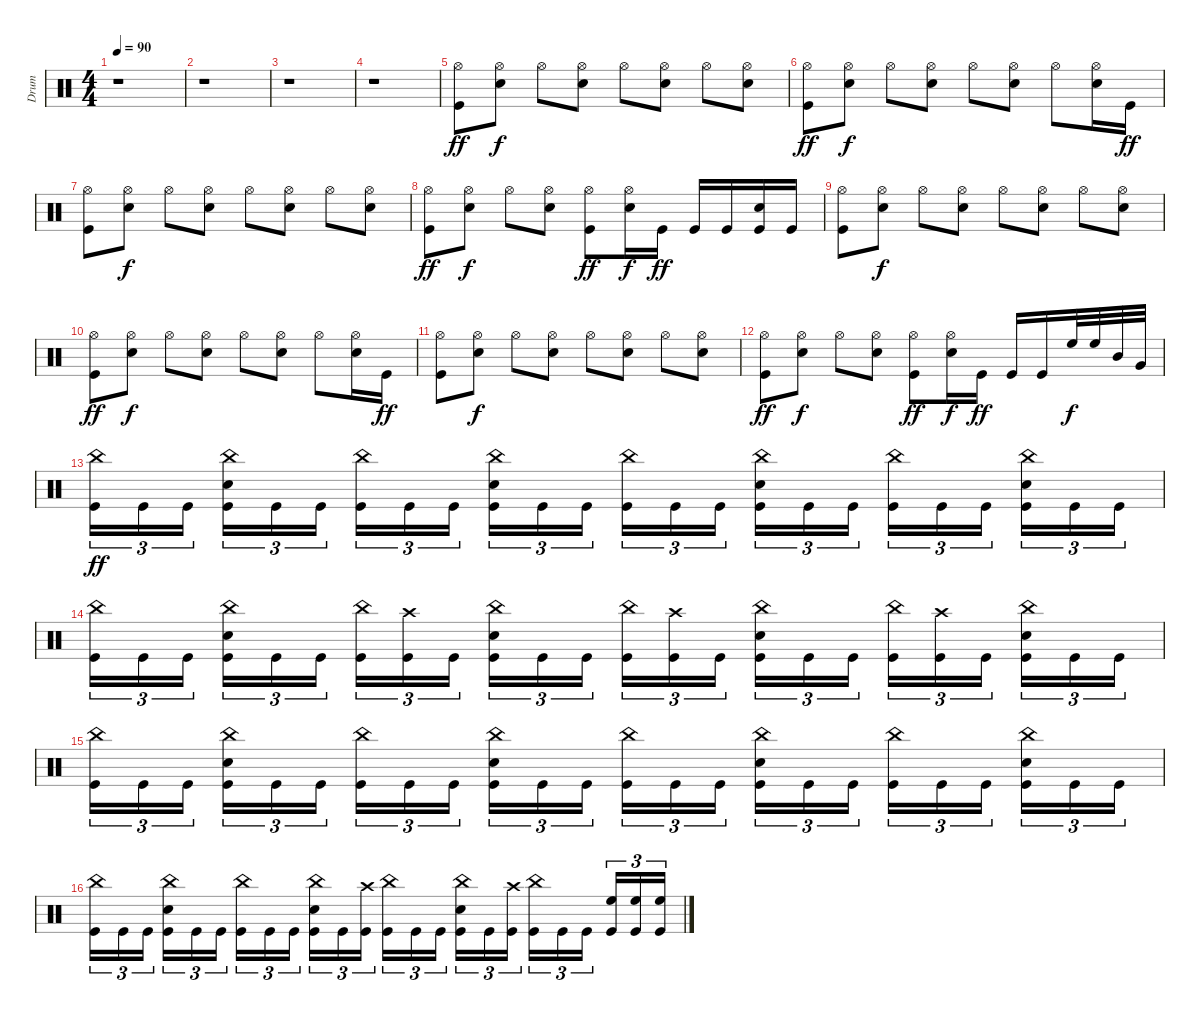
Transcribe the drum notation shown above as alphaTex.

\track ("Drum" "Drum") {instrument percussion}
\staff {score}
\articulation defaults
\ts (4 4)
\tempo 90
\clef neutral
\ks c
r.1{dy f} |
r.1 |
r.1 |
r.1 |
("Hi-Hat (open)" "Kick (hit)").8{dy ff} ("Hi-Hat (open)" "Snare (hit) 2").8{dy f} "Hi-Hat (open)".8 ("Hi-Hat (open)" "Snare (hit) 2").8 "Hi-Hat (open)".8 ("Hi-Hat (open)" "Snare (hit) 2").8 "Hi-Hat (open)".8 ("Hi-Hat (open)" "Snare (hit) 2").8 |
("Hi-Hat (open)" "Kick (hit)").8{dy ff} ("Hi-Hat (open)" "Snare (hit) 2").8{dy f} "Hi-Hat (open)".8 ("Hi-Hat (open)" "Snare (hit) 2").8 "Hi-Hat (open)".8 ("Hi-Hat (open)" "Snare (hit) 2").8 "Hi-Hat (open)".8 ("Hi-Hat (open)" "Snare (hit) 2").16 "Kick (hit)".16{dy ff} |
("Hi-Hat (open)" "Kick (hit)").8 ("Hi-Hat (open)" "Snare (hit) 2").8{dy f} "Hi-Hat (open)".8 ("Hi-Hat (open)" "Snare (hit) 2").8 "Hi-Hat (open)".8 ("Hi-Hat (open)" "Snare (hit) 2").8 "Hi-Hat (open)".8 ("Hi-Hat (open)" "Snare (hit) 2").8 |
("Hi-Hat (open)" "Kick (hit)").8{dy ff} ("Hi-Hat (open)" "Snare (hit) 2").8{dy f} "Hi-Hat (open)".8 ("Hi-Hat (open)" "Snare (hit) 2").8 ("Hi-Hat (open)" "Kick (hit)").8{dy ff} ("Hi-Hat (open)" "Snare (hit) 2").16{dy f} "Kick (hit)".16{dy ff} "Kick (hit)".16 "Kick (hit)".16 ("Snare (hit) 2" "Kick (hit)").16 "Kick (hit)".16 |
("Hi-Hat (open)" "Kick (hit)").8 ("Hi-Hat (open)" "Snare (hit) 2").8{dy f} "Hi-Hat (open)".8 ("Hi-Hat (open)" "Snare (hit) 2").8 "Hi-Hat (open)".8 ("Hi-Hat (open)" "Snare (hit) 2").8 "Hi-Hat (open)".8 ("Hi-Hat (open)" "Snare (hit) 2").8 |
("Hi-Hat (open)" "Kick (hit)").8{dy ff} ("Hi-Hat (open)" "Snare (hit) 2").8{dy f} "Hi-Hat (open)".8 ("Hi-Hat (open)" "Snare (hit) 2").8 "Hi-Hat (open)".8 ("Hi-Hat (open)" "Snare (hit) 2").8 "Hi-Hat (open)".8 ("Hi-Hat (open)" "Snare (hit) 2").16 "Kick (hit)".16{dy ff} |
("Hi-Hat (open)" "Kick (hit)").8 ("Hi-Hat (open)" "Snare (hit) 2").8{dy f} "Hi-Hat (open)".8 ("Hi-Hat (open)" "Snare (hit) 2").8 "Hi-Hat (open)".8 ("Hi-Hat (open)" "Snare (hit) 2").8 "Hi-Hat (open)".8 ("Hi-Hat (open)" "Snare (hit) 2").8 |
("Hi-Hat (open)" "Kick (hit)").8{dy ff} ("Hi-Hat (open)" "Snare (hit) 2").8{dy f} "Hi-Hat (open)".8 ("Hi-Hat (open)" "Snare (hit) 2").8 ("Hi-Hat (open)" "Kick (hit)").8{dy ff} ("Hi-Hat (open)" "Snare (hit) 2").16{dy f} "Kick (hit)".16{dy ff} "Kick (hit)".16 "Kick (hit)".16 "High Floor Tom (hit)".32{dy f} "High Floor Tom (hit)".32 "Mid Tom (hit)".32 "Very Low Tom (hit)".32 |
("China (hit)" "Kick (hit)").16{tu (3 2) dy ff} "Kick (hit)".16{tu (3 2)} "Kick (hit)".16{tu (3 2) beam splitsecondary} ("China (hit)" "Snare (hit) 2" "Kick (hit)").16{tu (3 2)} "Kick (hit)".16{tu (3 2)} "Kick (hit)".16{tu (3 2)} ("China (hit)" "Kick (hit)").16{tu (3 2)} "Kick (hit)".16{tu (3 2)} "Kick (hit)".16{tu (3 2) beam splitsecondary} ("China (hit)" "Snare (hit) 2" "Kick (hit)").16{tu (3 2)} "Kick (hit)".16{tu (3 2)} "Kick (hit)".16{tu (3 2)} ("China (hit)" "Kick (hit)").16{tu (3 2)} "Kick (hit)".16{tu (3 2)} "Kick (hit)".16{tu (3 2) beam splitsecondary} ("China (hit)" "Snare (hit) 2" "Kick (hit)").16{tu (3 2)} "Kick (hit)".16{tu (3 2)} "Kick (hit)".16{tu (3 2)} ("China (hit)" "Kick (hit)").16{tu (3 2)} "Kick (hit)".16{tu (3 2)} "Kick (hit)".16{tu (3 2) beam splitsecondary} ("China (hit)" "Snare (hit) 2" "Kick (hit)").16{tu (3 2)} "Kick (hit)".16{tu (3 2)} "Kick (hit)".16{tu (3 2)} |
("China (hit)" "Kick (hit)").16{tu (3 2)} "Kick (hit)".16{tu (3 2)} "Kick (hit)".16{tu (3 2) beam splitsecondary} ("China (hit)" "Snare (hit) 2" "Kick (hit)").16{tu (3 2)} "Kick (hit)".16{tu (3 2)} "Kick (hit)".16{tu (3 2)} ("China (hit)" "Kick (hit)").16{tu (3 2)} ("Crash high (hit)" "Kick (hit)").16{tu (3 2)} "Kick (hit)".16{tu (3 2) beam splitsecondary} ("China (hit)" "Snare (hit) 2" "Kick (hit)").16{tu (3 2)} "Kick (hit)".16{tu (3 2)} "Kick (hit)".16{tu (3 2)} ("China (hit)" "Kick (hit)").16{tu (3 2)} ("Crash high (hit)" "Kick (hit)").16{tu (3 2)} "Kick (hit)".16{tu (3 2) beam splitsecondary} ("China (hit)" "Snare (hit) 2" "Kick (hit)").16{tu (3 2)} "Kick (hit)".16{tu (3 2)} "Kick (hit)".16{tu (3 2)} ("China (hit)" "Kick (hit)").16{tu (3 2)} ("Crash high (hit)" "Kick (hit)").16{tu (3 2)} "Kick (hit)".16{tu (3 2) beam splitsecondary} ("China (hit)" "Snare (hit) 2" "Kick (hit)").16{tu (3 2)} "Kick (hit)".16{tu (3 2)} "Kick (hit)".16{tu (3 2)} |
("China (hit)" "Kick (hit)").16{tu (3 2)} "Kick (hit)".16{tu (3 2)} "Kick (hit)".16{tu (3 2) beam splitsecondary} ("China (hit)" "Snare (hit) 2" "Kick (hit)").16{tu (3 2)} "Kick (hit)".16{tu (3 2)} "Kick (hit)".16{tu (3 2)} ("China (hit)" "Kick (hit)").16{tu (3 2)} "Kick (hit)".16{tu (3 2)} "Kick (hit)".16{tu (3 2) beam splitsecondary} ("China (hit)" "Snare (hit) 2" "Kick (hit)").16{tu (3 2)} "Kick (hit)".16{tu (3 2)} "Kick (hit)".16{tu (3 2)} ("China (hit)" "Kick (hit)").16{tu (3 2)} "Kick (hit)".16{tu (3 2)} "Kick (hit)".16{tu (3 2) beam splitsecondary} ("China (hit)" "Snare (hit) 2" "Kick (hit)").16{tu (3 2)} "Kick (hit)".16{tu (3 2)} "Kick (hit)".16{tu (3 2)} ("China (hit)" "Kick (hit)").16{tu (3 2)} "Kick (hit)".16{tu (3 2)} "Kick (hit)".16{tu (3 2) beam splitsecondary} ("China (hit)" "Snare (hit) 2" "Kick (hit)").16{tu (3 2)} "Kick (hit)".16{tu (3 2)} "Kick (hit)".16{tu (3 2)} |
("China (hit)" "Kick (hit)").16{tu (3 2)} "Kick (hit)".16{tu (3 2)} "Kick (hit)".16{tu (3 2) beam splitsecondary} ("China (hit)" "Snare (hit) 2" "Kick (hit)").16{tu (3 2)} "Kick (hit)".16{tu (3 2)} "Kick (hit)".16{tu (3 2)} ("China (hit)" "Kick (hit)").16{tu (3 2)} "Kick (hit)".16{tu (3 2)} "Kick (hit)".16{tu (3 2) beam splitsecondary} ("China (hit)" "Snare (hit) 2" "Kick (hit)").16{tu (3 2)} "Kick (hit)".16{tu (3 2)} ("Crash high (hit)" "Kick (hit)").16{tu (3 2)} ("China (hit)" "Kick (hit)").16{tu (3 2)} "Kick (hit)".16{tu (3 2)} "Kick (hit)".16{tu (3 2) beam splitsecondary} ("China (hit)" "Snare (hit) 2" "Kick (hit)").16{tu (3 2)} "Kick (hit)".16{tu (3 2)} ("Crash high (hit)" "Kick (hit)").16{tu (3 2)} ("China (hit)" "Kick (hit)").16{tu (3 2)} "Kick (hit)".16{tu (3 2)} "Kick (hit)".16{tu (3 2) beam splitsecondary} ("High Floor Tom (hit)" "Kick (hit)").16{tu (3 2)} ("High Floor Tom (hit)" "Kick (hit)").16{tu (3 2)} ("High Floor Tom (hit)" "Kick (hit)").16{tu (3 2)}
